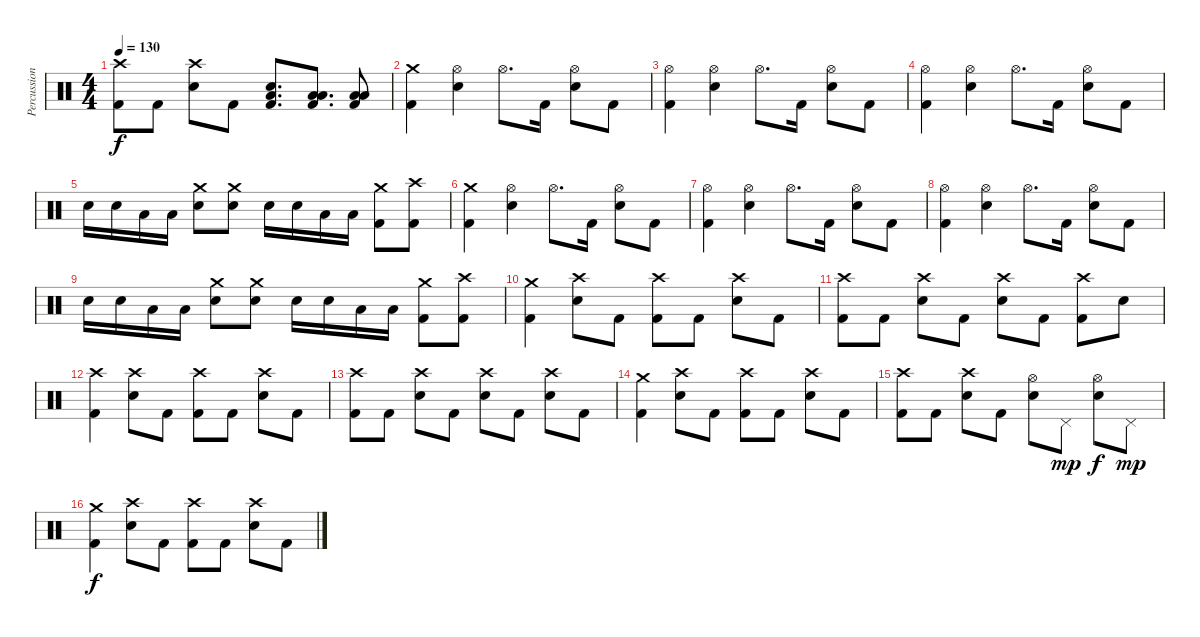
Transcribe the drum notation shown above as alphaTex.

\track ("Percussion" "Percussion") {instrument percussion}
\staff {score}
\articulation defaults
\ts (4 4)
\tempo 130
\clef neutral
\ks c
("Crash high (hit)" "Kick (hit) 2").8{dy f} "Kick (hit) 2".8 ("Crash high (hit)" "Electric Snare (hit)").8 "Kick (hit) 2".8 ("Low Floor Tom (hit)" "Electric Snare (hit)" "Kick (hit) 2").8{d} ("Low Tom (hit)" "Low Floor Tom (hit)" "Kick (hit) 2").8{d} ("Low Tom (hit)" "Low Floor Tom (hit)" "Kick (hit) 2").8 |
("Crash medium (hit)" "Kick (hit) 2").4 ("Hi-Hat (open)" "Electric Snare (hit)").4 "Hi-Hat (open)".8{d} "Kick (hit) 2".16 ("Hi-Hat (open)" "Electric Snare (hit)").8 "Kick (hit) 2".8 |
("Hi-Hat (open)" "Kick (hit) 2").4 ("Hi-Hat (open)" "Electric Snare (hit)").4 "Hi-Hat (open)".8{d} "Kick (hit) 2".16 ("Hi-Hat (open)" "Electric Snare (hit)").8 "Kick (hit) 2".8 |
("Hi-Hat (open)" "Kick (hit) 2").4 ("Hi-Hat (open)" "Electric Snare (hit)").4 "Hi-Hat (open)".8{d} "Kick (hit) 2".16 ("Hi-Hat (open)" "Electric Snare (hit)").8 "Kick (hit) 2".8 |
"Electric Snare (hit)".16 "Electric Snare (hit)".16 "Low Tom (hit)".16 "Low Floor Tom (hit)".16 ("Crash medium (hit)" "Electric Snare (hit)").8 ("Crash medium (hit)" "Electric Snare (hit)").8 "Electric Snare (hit)".16 "Electric Snare (hit)".16 "Low Tom (hit)".16 "Low Floor Tom (hit)".16 ("Crash medium (hit)" "Kick (hit) 2").8 ("Crash high (hit)" "Kick (hit) 2").8 |
("Crash medium (hit)" "Kick (hit) 2").4 ("Hi-Hat (open)" "Electric Snare (hit)").4 "Hi-Hat (open)".8{d} "Kick (hit) 2".16 ("Hi-Hat (open)" "Electric Snare (hit)").8 "Kick (hit) 2".8 |
("Hi-Hat (open)" "Kick (hit) 2").4 ("Hi-Hat (open)" "Electric Snare (hit)").4 "Hi-Hat (open)".8{d} "Kick (hit) 2".16 ("Hi-Hat (open)" "Electric Snare (hit)").8 "Kick (hit) 2".8 |
("Hi-Hat (open)" "Kick (hit) 2").4 ("Hi-Hat (open)" "Electric Snare (hit)").4 "Hi-Hat (open)".8{d} "Kick (hit) 2".16 ("Hi-Hat (open)" "Electric Snare (hit)").8 "Kick (hit) 2".8 |
"Electric Snare (hit)".16 "Electric Snare (hit)".16 "Low Tom (hit)".16 "Low Floor Tom (hit)".16 ("Crash medium (hit)" "Electric Snare (hit)").8 ("Crash medium (hit)" "Electric Snare (hit)").8 "Electric Snare (hit)".16 "Electric Snare (hit)".16 "Low Tom (hit)".16 "Low Floor Tom (hit)".16 ("Crash medium (hit)" "Kick (hit) 2").8 ("Crash high (hit)" "Kick (hit) 2").8 |
("Crash medium (hit)" "Kick (hit) 2").4 ("Crash high (hit)" "Electric Snare (hit)").8 "Kick (hit) 2".8 ("Crash high (hit)" "Kick (hit) 2").8 "Kick (hit) 2".8 ("Crash high (hit)" "Electric Snare (hit)").8 "Kick (hit) 2".8 |
("Crash high (hit)" "Kick (hit) 2").8 "Kick (hit) 2".8 ("Crash high (hit)" "Electric Snare (hit)").8 "Kick (hit) 2".8 ("Crash high (hit)" "Electric Snare (hit)").8 "Kick (hit) 2".8 ("Crash high (hit)" "Kick (hit) 2").8 "Electric Snare (hit)".8 |
("Crash high (hit)" "Kick (hit) 2").4 ("Crash high (hit)" "Electric Snare (hit)").8 "Kick (hit) 2".8 ("Crash high (hit)" "Kick (hit) 2").8 "Kick (hit) 2".8 ("Crash high (hit)" "Electric Snare (hit)").8 "Kick (hit) 2".8 |
("Crash high (hit)" "Kick (hit) 2").8 "Kick (hit) 2".8 ("Crash high (hit)" "Electric Snare (hit)").8 "Kick (hit) 2".8 ("Crash high (hit)" "Electric Snare (hit)").8 "Kick (hit) 2".8 ("Crash high (hit)" "Electric Snare (hit)").8 "Kick (hit) 2".8 |
("Crash medium (hit)" "Kick (hit) 2").4 ("Crash high (hit)" "Electric Snare (hit)").8 "Kick (hit) 2".8 ("Crash high (hit)" "Kick (hit) 2").8 "Kick (hit) 2".8 ("Crash high (hit)" "Electric Snare (hit)").8 "Kick (hit) 2".8 |
("Crash high (hit)" "Kick (hit) 2").8 "Kick (hit) 2".8 ("Crash high (hit)" "Electric Snare (hit)").8 "Kick (hit) 2".8 ("Hi-Hat (open)" "Electric Snare (hit)").8 "Pedal Hi-Hat (hit)".8{dy mp} ("Hi-Hat (open)" "Electric Snare (hit)").8{dy f} "Pedal Hi-Hat (hit)".8{dy mp} |
("Crash medium (hit)" "Kick (hit) 2").4{dy f} ("Crash high (hit)" "Electric Snare (hit)").8 "Kick (hit) 2".8 ("Crash high (hit)" "Kick (hit) 2").8 "Kick (hit) 2".8 ("Crash high (hit)" "Electric Snare (hit)").8 "Kick (hit) 2".8
